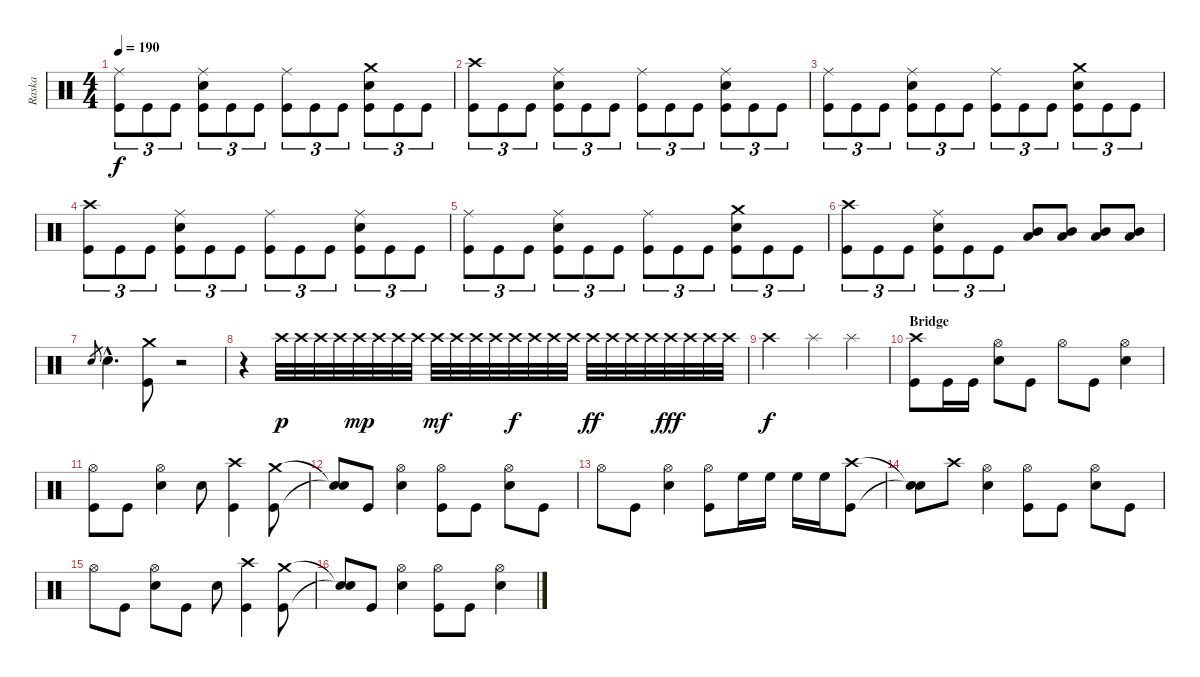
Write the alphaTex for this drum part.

\track ("Raska" "Raska") {instrument percussion}
\staff {score}
\articulation defaults
\ts (4 4)
\tempo 190
\clef neutral
\ks c
("Ride (middle)" "Kick (hit)").8{tu (3 2) dy f} "Kick (hit)".8{tu (3 2)} "Kick (hit)".8{tu (3 2)} ("Ride (middle)" "Electric Snare (hit)" "Kick (hit)").8{tu (3 2)} "Kick (hit)".8{tu (3 2)} "Kick (hit)".8{tu (3 2)} ("Ride (middle)" "Kick (hit)").8{tu (3 2)} "Kick (hit)".8{tu (3 2)} "Kick (hit)".8{tu (3 2)} ("Crash medium (hit)" "Electric Snare (hit)" "Kick (hit)").8{tu (3 2)} "Kick (hit)".8{tu (3 2)} "Kick (hit)".8{tu (3 2)} |
("Crash high (hit)" "Kick (hit)").8{tu (3 2)} "Kick (hit)".8{tu (3 2)} "Kick (hit)".8{tu (3 2)} ("Ride (middle)" "Electric Snare (hit)" "Kick (hit)").8{tu (3 2)} "Kick (hit)".8{tu (3 2)} "Kick (hit)".8{tu (3 2)} ("Ride (middle)" "Kick (hit)").8{tu (3 2)} "Kick (hit)".8{tu (3 2)} "Kick (hit)".8{tu (3 2)} ("Ride (middle)" "Electric Snare (hit)" "Kick (hit)").8{tu (3 2)} "Kick (hit)".8{tu (3 2)} "Kick (hit)".8{tu (3 2)} |
("Ride (middle)" "Kick (hit)").8{tu (3 2)} "Kick (hit)".8{tu (3 2)} "Kick (hit)".8{tu (3 2)} ("Ride (middle)" "Electric Snare (hit)" "Kick (hit)").8{tu (3 2)} "Kick (hit)".8{tu (3 2)} "Kick (hit)".8{tu (3 2)} ("Ride (middle)" "Kick (hit)").8{tu (3 2)} "Kick (hit)".8{tu (3 2)} "Kick (hit)".8{tu (3 2)} ("Crash medium (hit)" "Electric Snare (hit)" "Kick (hit)").8{tu (3 2)} "Kick (hit)".8{tu (3 2)} "Kick (hit)".8{tu (3 2)} |
("Crash high (hit)" "Kick (hit)").8{tu (3 2)} "Kick (hit)".8{tu (3 2)} "Kick (hit)".8{tu (3 2)} ("Ride (middle)" "Electric Snare (hit)" "Kick (hit)").8{tu (3 2)} "Kick (hit)".8{tu (3 2)} "Kick (hit)".8{tu (3 2)} ("Ride (middle)" "Kick (hit)").8{tu (3 2)} "Kick (hit)".8{tu (3 2)} "Kick (hit)".8{tu (3 2)} ("Ride (middle)" "Electric Snare (hit)" "Kick (hit)").8{tu (3 2)} "Kick (hit)".8{tu (3 2)} "Kick (hit)".8{tu (3 2)} |
("Ride (middle)" "Kick (hit)").8{tu (3 2)} "Kick (hit)".8{tu (3 2)} "Kick (hit)".8{tu (3 2)} ("Ride (middle)" "Electric Snare (hit)" "Kick (hit)").8{tu (3 2)} "Kick (hit)".8{tu (3 2)} "Kick (hit)".8{tu (3 2)} ("Ride (middle)" "Kick (hit)").8{tu (3 2)} "Kick (hit)".8{tu (3 2)} "Kick (hit)".8{tu (3 2)} ("Crash medium (hit)" "Electric Snare (hit)" "Kick (hit)").8{tu (3 2)} "Kick (hit)".8{tu (3 2)} "Kick (hit)".8{tu (3 2)} |
("Crash high (hit)" "Kick (hit)").8{tu (3 2)} "Kick (hit)".8{tu (3 2)} "Kick (hit)".8{tu (3 2)} ("Ride (middle)" "Electric Snare (hit)" "Kick (hit)").8{tu (3 2)} "Kick (hit)".8{tu (3 2)} "Kick (hit)".8{tu (3 2)} ("Mid Tom (hit)" "Low Tom (hit)").8 ("Mid Tom (hit)" "Low Tom (hit)").8 ("Mid Tom (hit)" "Low Tom (hit)").8 ("Mid Tom (hit)" "Low Tom (hit)").8 |
"Electric Snare (hit)".8{gr} "Electric Snare (hit)"{hac}.4{d} ("Crash medium (hit)" "Kick (hit)").8 r.2 |
r.4 "Crash high (hit)".32{dy p} "Crash high (hit)".32 "Crash high (hit)".32 "Crash high (hit)".32 "Crash high (hit)".32{dy mp} "Crash high (hit)".32 "Crash high (hit)".32 "Crash high (hit)".32 "Crash high (hit)".32{dy mf} "Crash high (hit)".32 "Crash high (hit)".32 "Crash high (hit)".32 "Crash high (hit)".32{dy f} "Crash high (hit)".32 "Crash high (hit)".32 "Crash high (hit)".32 "Crash high (hit)".32{dy ff} "Crash high (hit)".32 "Crash high (hit)".32 "Crash high (hit)".32 "Crash high (hit)".32{dy fff} "Crash high (hit)".32 "Crash high (hit)".32 "Crash high (hit)".32 |
"Crash high (hit)".2{dy f} "Splash (hit)".4 "Splash (hit)".4 |
\section ("" "Bridge")
("Crash high (hit)" "Kick (hit)").8 "Kick (hit)".16 "Kick (hit)".16 ("Hi-Hat (open)" "Electric Snare (hit)").8 "Kick (hit)".8 "Hi-Hat (open)".8 "Kick (hit)".8 ("Hi-Hat (open)" "Electric Snare (hit)").4 |
("Hi-Hat (open)" "Kick (hit)").8 "Kick (hit)".8 ("Hi-Hat (open)" "Electric Snare (hit)").4 "Electric Snare (hit)".8 ("Crash high (hit)" "Kick (hit)").4 ("Crash medium (hit)" "Kick (hit)").8 |
("Snare (hit)"{t} "Snare (hit)"{t}).8 "Kick (hit)".8 ("Hi-Hat (open)" "Electric Snare (hit)").4 ("Hi-Hat (open)" "Kick (hit)").8 "Kick (hit)".8 ("Hi-Hat (open)" "Electric Snare (hit)").8 "Kick (hit)".8 |
"Hi-Hat (open)".8 "Kick (hit)".8 ("Hi-Hat (open)" "Electric Snare (hit)").4 ("Hi-Hat (open)" "Kick (hit)").8 "High Floor Tom (hit)".16 "High Floor Tom (hit)".16 "High Floor Tom (hit)".16 "High Floor Tom (hit)".16 ("Crash high (hit)" "Kick (hit)").8 |
("Snare (hit)"{t} "Snare (hit)"{t}).8 "Crash high (hit)".8 ("Hi-Hat (open)" "Electric Snare (hit)").4 ("Hi-Hat (open)" "Kick (hit)").8 "Kick (hit)".8 ("Hi-Hat (open)" "Electric Snare (hit)").8 "Kick (hit)".8 |
"Hi-Hat (open)".8 "Kick (hit)".8 ("Hi-Hat (open)" "Electric Snare (hit)").8 "Kick (hit)".8 "Electric Snare (hit)".8 ("Crash high (hit)" "Kick (hit)").4 ("Crash medium (hit)" "Kick (hit)").8 |
("Snare (hit)"{t} "Snare (hit)"{t}).8 "Kick (hit)".8 ("Hi-Hat (open)" "Electric Snare (hit)").4 ("Hi-Hat (open)" "Kick (hit)").8 "Kick (hit)".8 ("Hi-Hat (open)" "Electric Snare (hit)").4
